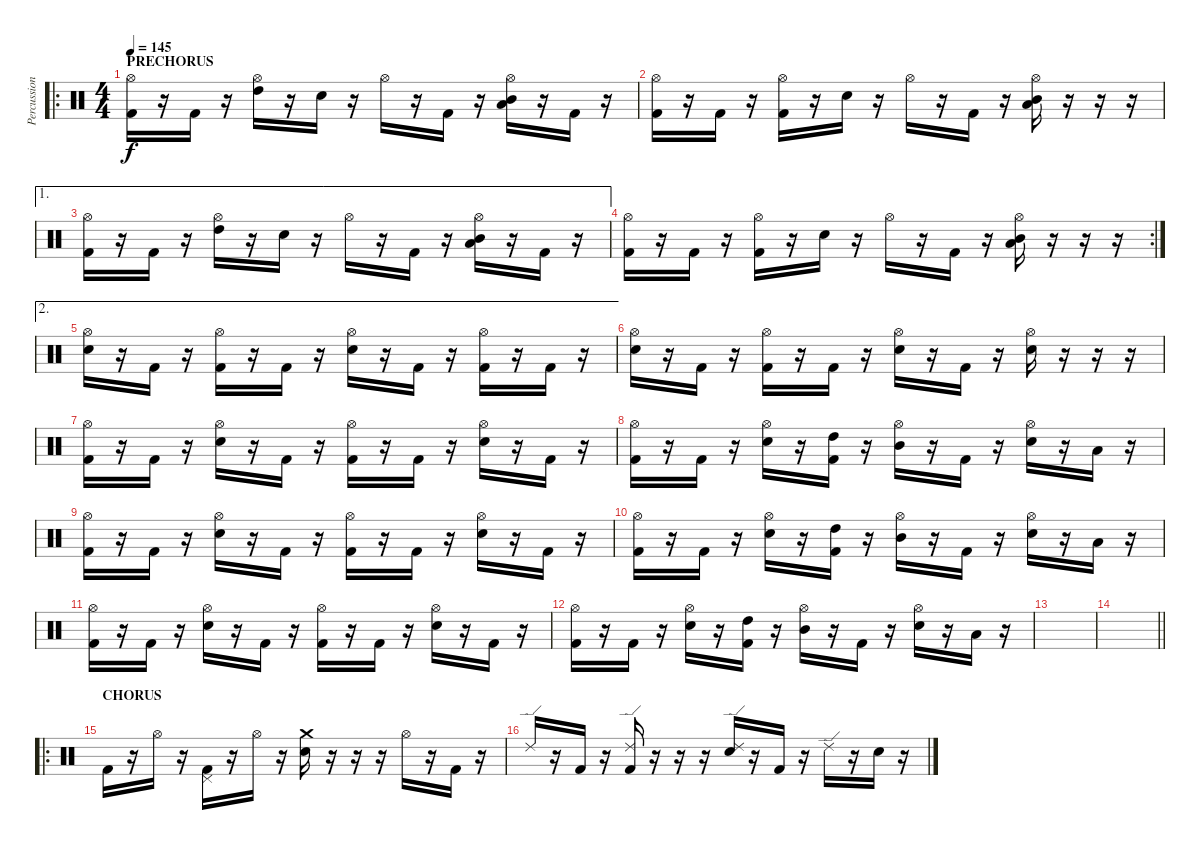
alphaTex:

\track ("Percussion" "Percussion") {instrument percussion}
\staff {score}
\articulation defaults
\ro
\ts (4 4)
\section ("" "PRECHORUS")
\tempo 145
\clef neutral
\ks c
("Kick (hit) 2" "Hi-Hat (open)").16{dy f} r.16 "Kick (hit) 2".16 r.16 ("High Tom (hit)" "Hi-Hat (open)").16 r.16 "Snare (hit) 2".16 r.16 "Hi-Hat (open)".16 r.16 "Kick (hit) 2".16 r.16 ("Low Floor Tom (hit)" "Mid Tom (hit)" "Hi-Hat (open)").16 r.16 "Kick (hit) 2".16 r.16 |
("Kick (hit) 2" "Hi-Hat (open)").16 r.16 "Kick (hit) 2".16 r.16 ("Kick (hit) 2" "Hi-Hat (open)").16 r.16 "Snare (hit) 2".16 r.16 "Hi-Hat (open)".16 r.16 "Kick (hit) 2".16 r.16 ("Low Floor Tom (hit)" "Mid Tom (hit)" "Hi-Hat (open)").16 r.16 r.16 r.16 |
\ae 1
("Kick (hit) 2" "Hi-Hat (open)").16 r.16 "Kick (hit) 2".16 r.16 ("High Tom (hit)" "Hi-Hat (open)").16 r.16 "Snare (hit) 2".16 r.16 "Hi-Hat (open)".16 r.16 "Kick (hit) 2".16 r.16 ("Low Floor Tom (hit)" "Mid Tom (hit)" "Hi-Hat (open)").16 r.16 "Kick (hit) 2".16 r.16 |
\rc 2
("Kick (hit) 2" "Hi-Hat (open)").16 r.16 "Kick (hit) 2".16 r.16 ("Kick (hit) 2" "Hi-Hat (open)").16 r.16 "Snare (hit) 2".16 r.16 "Hi-Hat (open)".16 r.16 "Kick (hit) 2".16 r.16 ("Low Floor Tom (hit)" "Mid Tom (hit)" "Hi-Hat (open)").16 r.16 r.16 r.16 |
\ae 2
("Snare (hit) 2" "Hi-Hat (open)").16 r.16 "Kick (hit) 2".16 r.16 ("Kick (hit) 2" "Hi-Hat (open)").16 r.16 "Kick (hit) 2".16 r.16 ("Snare (hit) 2" "Hi-Hat (open)").16 r.16 "Kick (hit) 2".16 r.16 ("Kick (hit) 2" "Hi-Hat (open)").16 r.16 "Kick (hit) 2".16 r.16 |
("Snare (hit) 2" "Hi-Hat (open)").16 r.16 "Kick (hit) 2".16 r.16 ("Kick (hit) 2" "Hi-Hat (open)").16 r.16 "Kick (hit) 2".16 r.16 ("Snare (hit) 2" "Hi-Hat (open)").16 r.16 "Kick (hit) 2".16 r.16 ("Snare (hit) 2" "Hi-Hat (open)").16 r.16 r.16 r.16 |
("Kick (hit) 2" "Hi-Hat (open)").16 r.16 "Kick (hit) 2".16 r.16 ("Snare (hit) 2" "Hi-Hat (open)").16 r.16 "Kick (hit) 2".16 r.16 ("Kick (hit) 2" "Hi-Hat (open)").16 r.16 "Kick (hit) 2".16 r.16 ("Snare (hit) 2" "Hi-Hat (open)").16 r.16 "Kick (hit) 2".16 r.16 |
("Kick (hit) 2" "Hi-Hat (open)").16 r.16 "Kick (hit) 2".16 r.16 ("Snare (hit) 2" "Hi-Hat (open)").16 r.16 ("High Tom (hit)" "Kick (hit) 2").16 r.16 ("Mid Tom (hit)" "Hi-Hat (open)").16 r.16 "Kick (hit) 2".16 r.16 ("Snare (hit) 2" "Hi-Hat (open)").16 r.16 "Low Floor Tom (hit)".16 r.16 |
("Kick (hit) 2" "Hi-Hat (open)").16 r.16 "Kick (hit) 2".16 r.16 ("Snare (hit) 2" "Hi-Hat (open)").16 r.16 "Kick (hit) 2".16 r.16 ("Kick (hit) 2" "Hi-Hat (open)").16 r.16 "Kick (hit) 2".16 r.16 ("Snare (hit) 2" "Hi-Hat (open)").16 r.16 "Kick (hit) 2".16 r.16 |
("Kick (hit) 2" "Hi-Hat (open)").16 r.16 "Kick (hit) 2".16 r.16 ("Snare (hit) 2" "Hi-Hat (open)").16 r.16 ("High Tom (hit)" "Kick (hit) 2").16 r.16 ("Mid Tom (hit)" "Hi-Hat (open)").16 r.16 "Kick (hit) 2".16 r.16 ("Snare (hit) 2" "Hi-Hat (open)").16 r.16 "Low Floor Tom (hit)".16 r.16 |
("Kick (hit) 2" "Hi-Hat (open)").16 r.16 "Kick (hit) 2".16 r.16 ("Snare (hit) 2" "Hi-Hat (open)").16 r.16 "Kick (hit) 2".16 r.16 ("Kick (hit) 2" "Hi-Hat (open)").16 r.16 "Kick (hit) 2".16 r.16 ("Snare (hit) 2" "Hi-Hat (open)").16 r.16 "Kick (hit) 2".16 r.16 |
("Kick (hit) 2" "Hi-Hat (open)").16 r.16 "Kick (hit) 2".16 r.16 ("Snare (hit) 2" "Hi-Hat (open)").16 r.16 ("High Tom (hit)" "Kick (hit) 2").16 r.16 ("Mid Tom (hit)" "Hi-Hat (open)").16 r.16 "Kick (hit) 2".16 r.16 ("Snare (hit) 2" "Hi-Hat (open)").16 r.16 "Low Floor Tom (hit)".16 r.16 |
|
\barLineRight lightlight
|
\ro
\section ("" "CHORUS")
"Kick (hit) 2".16 r.16 "Hi-Hat (open)".16 r.16 ("Kick (hit) 2" "Pedal Hi-Hat (hit)").16 r.16 "Hi-Hat (open)".16 r.16 ("Snare (hit) 2" "Crash medium (hit)").16 r.16 r.16 r.16 "Hi-Hat (open)".16 r.16 "Kick (hit) 2".16 r.16 |
"Ride (edge) 2".16 r.16 "Kick (hit) 2".16 r.16 ("Kick (hit) 2" "Ride (edge) 2").16 r.16 r.16 r.16 ("Snare (hit) 2" "Ride (edge) 2").16 r.16 "Kick (hit) 2".16 r.16 "Ride (edge) 2".16 r.16 "Snare (hit) 2".16 r.16
